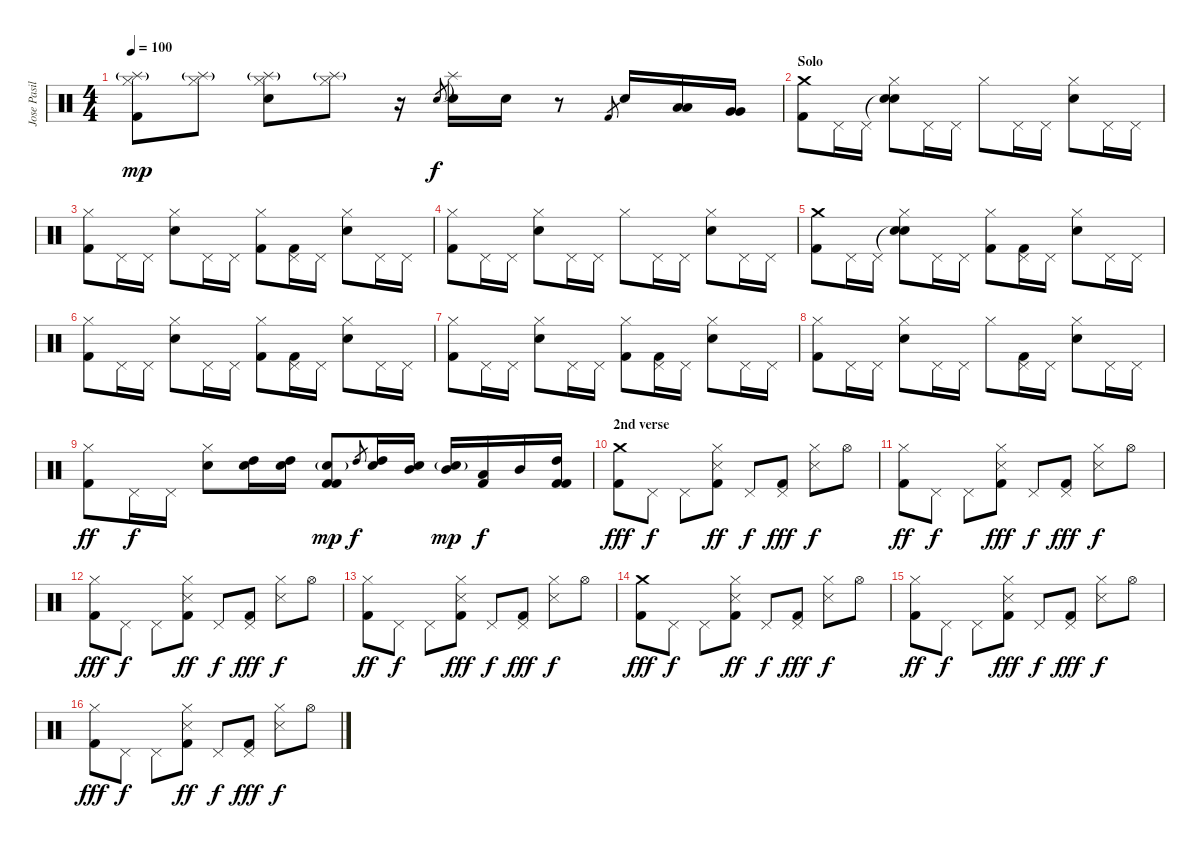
\track ("Jose Pasillas III" "Jose Pasil") {instrument percussion}
\staff {score}
\articulation defaults
\ts (4 4)
\tempo 100
\clef neutral
\ks c
("Splash (hit)"{g} "Hi-Hat (closed)" "Kick (hit) 2").8{dy mp} ("Splash (hit)"{g} "Hi-Hat (closed)").8 ("Splash (hit)"{g} "Hi-Hat (closed)" "Electric Snare (hit)").8 ("Splash (hit)"{g} "Hi-Hat (closed)").8 r.16 "Electric Snare (hit)".8{gr dy f} ("Splash (hit)"{t} "Electric Snare (hit)").16 "Electric Snare (hit)".16 r.8 "Kick (hit) 2".8{gr} "Electric Snare (hit)".16 ("Low Tom (hit)" "Low Tom (hit)").16 ("Very Low Tom (hit)" "Very Low Tom (hit)").16 |
\section ("" "Solo")
("Crash medium (hit)" "Kick (hit) 2").8 "Pedal Hi-Hat (hit)".16 "Pedal Hi-Hat (hit)".16 ("Snare (hit)"{t} "Hi-Hat (closed)" "Electric Snare (hit)").8 "Pedal Hi-Hat (hit)".16 "Pedal Hi-Hat (hit)".16 "Hi-Hat (closed)".8 "Pedal Hi-Hat (hit)".16 "Pedal Hi-Hat (hit)".16 ("Hi-Hat (closed)" "Electric Snare (hit)").8 "Pedal Hi-Hat (hit)".16 "Pedal Hi-Hat (hit)".16 |
("Hi-Hat (closed)" "Kick (hit) 2").8 "Pedal Hi-Hat (hit)".16 "Pedal Hi-Hat (hit)".16 ("Hi-Hat (closed)" "Electric Snare (hit)").8 "Pedal Hi-Hat (hit)".16 "Pedal Hi-Hat (hit)".16 ("Hi-Hat (closed)" "Kick (hit) 2").8 ("Pedal Hi-Hat (hit)" "Kick (hit) 2").16 "Pedal Hi-Hat (hit)".16 ("Hi-Hat (closed)" "Electric Snare (hit)").8 "Pedal Hi-Hat (hit)".16 "Pedal Hi-Hat (hit)".16 |
("Hi-Hat (closed)" "Kick (hit) 2").8 "Pedal Hi-Hat (hit)".16 "Pedal Hi-Hat (hit)".16 ("Hi-Hat (closed)" "Electric Snare (hit)").8 "Pedal Hi-Hat (hit)".16 "Pedal Hi-Hat (hit)".16 "Hi-Hat (closed)".8 "Pedal Hi-Hat (hit)".16 "Pedal Hi-Hat (hit)".16 ("Hi-Hat (closed)" "Electric Snare (hit)").8 "Pedal Hi-Hat (hit)".16 "Pedal Hi-Hat (hit)".16 |
("Crash medium (hit)" "Kick (hit) 2").8 "Pedal Hi-Hat (hit)".16 "Pedal Hi-Hat (hit)".16 ("Snare (hit)"{t} "Hi-Hat (closed)" "Electric Snare (hit)").8 "Pedal Hi-Hat (hit)".16 "Pedal Hi-Hat (hit)".16 ("Hi-Hat (closed)" "Kick (hit) 2").8 ("Pedal Hi-Hat (hit)" "Kick (hit) 2").16 "Pedal Hi-Hat (hit)".16 ("Hi-Hat (closed)" "Electric Snare (hit)").8 "Pedal Hi-Hat (hit)".16 "Pedal Hi-Hat (hit)".16 |
("Hi-Hat (closed)" "Kick (hit) 2").8 "Pedal Hi-Hat (hit)".16 "Pedal Hi-Hat (hit)".16 ("Hi-Hat (closed)" "Electric Snare (hit)").8 "Pedal Hi-Hat (hit)".16 "Pedal Hi-Hat (hit)".16 ("Hi-Hat (closed)" "Kick (hit) 2").8 ("Pedal Hi-Hat (hit)" "Kick (hit) 2").16 "Pedal Hi-Hat (hit)".16 ("Hi-Hat (closed)" "Electric Snare (hit)").8 "Pedal Hi-Hat (hit)".16 "Pedal Hi-Hat (hit)".16 |
("Hi-Hat (closed)" "Kick (hit) 2").8 "Pedal Hi-Hat (hit)".16 "Pedal Hi-Hat (hit)".16 ("Hi-Hat (closed)" "Electric Snare (hit)").8 "Pedal Hi-Hat (hit)".16 "Pedal Hi-Hat (hit)".16 ("Hi-Hat (closed)" "Kick (hit) 2").8 ("Pedal Hi-Hat (hit)" "Kick (hit) 2").16 "Pedal Hi-Hat (hit)".16 ("Hi-Hat (closed)" "Electric Snare (hit)").8 "Pedal Hi-Hat (hit)".16 "Pedal Hi-Hat (hit)".16 |
("Hi-Hat (closed)" "Kick (hit) 2").8 "Pedal Hi-Hat (hit)".16 "Pedal Hi-Hat (hit)".16 ("Hi-Hat (closed)" "Electric Snare (hit)").8 "Pedal Hi-Hat (hit)".16 "Pedal Hi-Hat (hit)".16 "Hi-Hat (closed)".8 ("Pedal Hi-Hat (hit)" "Kick (hit) 2").16 "Pedal Hi-Hat (hit)".16 ("Hi-Hat (closed)" "Electric Snare (hit)").8 "Pedal Hi-Hat (hit)".16 "Pedal Hi-Hat (hit)".16 |
("Hi-Hat (closed)" "Kick (hit) 2").8{dy ff} "Pedal Hi-Hat (hit)".16{dy f} "Pedal Hi-Hat (hit)".16 ("Hi-Hat (closed)" "Electric Snare (hit)").8 ("High Tom (hit)" "Electric Snare (hit)").16 ("High Tom (hit)" "Electric Snare (hit)").16 ("Electric Snare (hit)"{g} "Kick (hit) 2" "Kick (hit) 2").8{dy mp} "High Tom (hit)".8{gr dy f} ("High Tom (hit)" "Electric Snare (hit)").16 ("Mid Tom (hit)" "Electric Snare (hit)").16 ("Mid Tom (hit)" "Electric Snare (hit)"{g}).16{dy mp} ("Low Tom (hit)" "Kick (hit) 2").16{dy f} "Mid Tom (hit)".16 ("High Tom (hit)" "Kick (hit) 2" "Kick (hit) 2").16 |
\section ("" "2nd verse")
("Crash medium (hit)" "Kick (hit) 2").8{dy fff} "Pedal Hi-Hat (hit)".8{dy f} "Pedal Hi-Hat (hit)".8 ("Hi-Hat (closed)" "Snare (side stick) 3" "Kick (hit) 2").8{dy ff} "Pedal Hi-Hat (hit)".8{dy f} ("Pedal Hi-Hat (hit)" "Kick (hit) 2").8{dy fff} ("Hi-Hat (closed)" "Snare (side stick) 3").8{dy f} "Hi-Hat (open)".8 |
("Hi-Hat (closed)" "Kick (hit) 2").8{dy ff} "Pedal Hi-Hat (hit)".8{dy f} "Pedal Hi-Hat (hit)".8 ("Hi-Hat (closed)" "Snare (side stick) 3" "Kick (hit) 2").8{dy fff} "Pedal Hi-Hat (hit)".8{dy f} ("Pedal Hi-Hat (hit)" "Kick (hit) 2").8{dy fff} ("Hi-Hat (closed)" "Snare (side stick) 3").8{dy f} "Hi-Hat (open)".8 |
("Hi-Hat (closed)" "Kick (hit) 2").8{dy fff} "Pedal Hi-Hat (hit)".8{dy f} "Pedal Hi-Hat (hit)".8 ("Hi-Hat (closed)" "Snare (side stick) 3" "Kick (hit) 2").8{dy ff} "Pedal Hi-Hat (hit)".8{dy f} ("Pedal Hi-Hat (hit)" "Kick (hit) 2").8{dy fff} ("Hi-Hat (closed)" "Snare (side stick) 3").8{dy f} "Hi-Hat (open)".8 |
("Hi-Hat (closed)" "Kick (hit) 2").8{dy ff} "Pedal Hi-Hat (hit)".8{dy f} "Pedal Hi-Hat (hit)".8 ("Hi-Hat (closed)" "Snare (side stick) 3" "Kick (hit) 2").8{dy fff} "Pedal Hi-Hat (hit)".8{dy f} ("Pedal Hi-Hat (hit)" "Kick (hit) 2").8{dy fff} ("Hi-Hat (closed)" "Snare (side stick) 3").8{dy f} "Hi-Hat (open)".8 |
("Crash medium (hit)" "Kick (hit) 2").8{dy fff} "Pedal Hi-Hat (hit)".8{dy f} "Pedal Hi-Hat (hit)".8 ("Hi-Hat (closed)" "Snare (side stick) 3" "Kick (hit) 2").8{dy ff} "Pedal Hi-Hat (hit)".8{dy f} ("Pedal Hi-Hat (hit)" "Kick (hit) 2").8{dy fff} ("Hi-Hat (closed)" "Snare (side stick) 3").8{dy f} "Hi-Hat (open)".8 |
("Hi-Hat (closed)" "Kick (hit) 2").8{dy ff} "Pedal Hi-Hat (hit)".8{dy f} "Pedal Hi-Hat (hit)".8 ("Hi-Hat (closed)" "Snare (side stick) 3" "Kick (hit) 2").8{dy fff} "Pedal Hi-Hat (hit)".8{dy f} ("Pedal Hi-Hat (hit)" "Kick (hit) 2").8{dy fff} ("Hi-Hat (closed)" "Snare (side stick) 3").8{dy f} "Hi-Hat (open)".8 |
("Hi-Hat (closed)" "Kick (hit) 2").8{dy fff} "Pedal Hi-Hat (hit)".8{dy f} "Pedal Hi-Hat (hit)".8 ("Hi-Hat (closed)" "Snare (side stick) 3" "Kick (hit) 2").8{dy ff} "Pedal Hi-Hat (hit)".8{dy f} ("Pedal Hi-Hat (hit)" "Kick (hit) 2").8{dy fff} ("Hi-Hat (closed)" "Snare (side stick) 3").8{dy f} "Hi-Hat (open)".8
